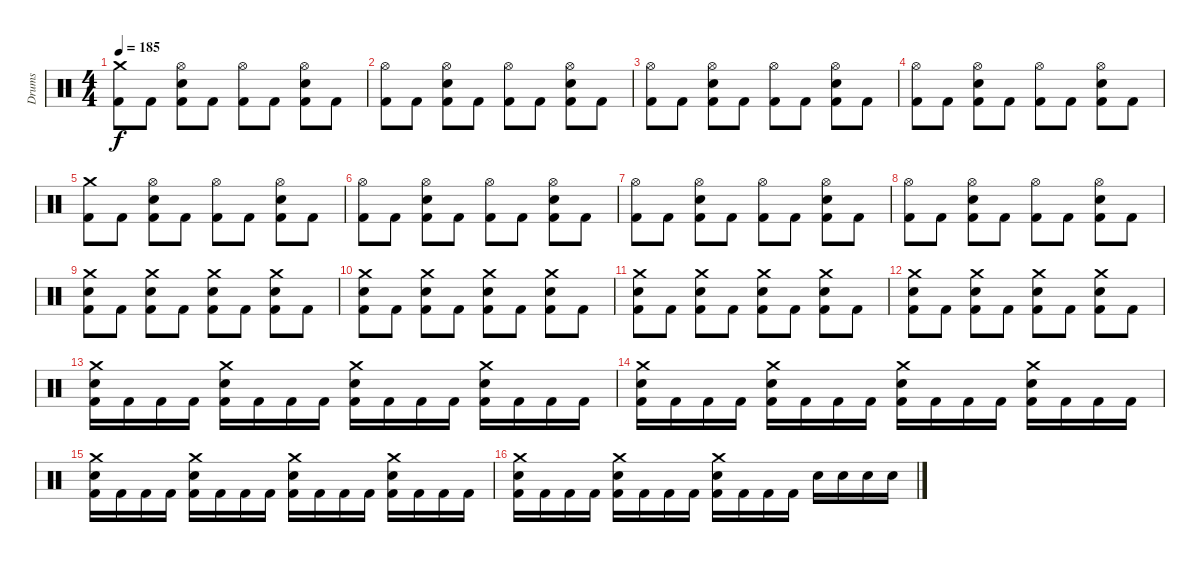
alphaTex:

\track ("Drums" "Drums") {instrument percussion}
\staff {score}
\articulation defaults
\ts (4 4)
\tempo 185
\clef neutral
\ks c
("Crash medium (hit)" "Kick (hit) 2").8{dy f} "Kick (hit) 2".8 ("Snare (hit) 2" "Hi-Hat (open)" "Kick (hit) 2").8 "Kick (hit) 2".8 ("Hi-Hat (open)" "Kick (hit) 2").8 "Kick (hit) 2".8 ("Snare (hit) 2" "Hi-Hat (open)" "Kick (hit) 2").8 "Kick (hit) 2".8 |
("Hi-Hat (open)" "Kick (hit) 2").8 "Kick (hit) 2".8 ("Snare (hit) 2" "Hi-Hat (open)" "Kick (hit) 2").8 "Kick (hit) 2".8 ("Hi-Hat (open)" "Kick (hit) 2").8 "Kick (hit) 2".8 ("Snare (hit) 2" "Hi-Hat (open)" "Kick (hit) 2").8 "Kick (hit) 2".8 |
("Hi-Hat (open)" "Kick (hit) 2").8 "Kick (hit) 2".8 ("Snare (hit) 2" "Hi-Hat (open)" "Kick (hit) 2").8 "Kick (hit) 2".8 ("Hi-Hat (open)" "Kick (hit) 2").8 "Kick (hit) 2".8 ("Snare (hit) 2" "Hi-Hat (open)" "Kick (hit) 2").8 "Kick (hit) 2".8 |
("Hi-Hat (open)" "Kick (hit) 2").8 "Kick (hit) 2".8 ("Snare (hit) 2" "Hi-Hat (open)" "Kick (hit) 2").8 "Kick (hit) 2".8 ("Hi-Hat (open)" "Kick (hit) 2").8 "Kick (hit) 2".8 ("Snare (hit) 2" "Hi-Hat (open)" "Kick (hit) 2").8 "Kick (hit) 2".8 |
("Crash medium (hit)" "Kick (hit) 2").8 "Kick (hit) 2".8 ("Snare (hit) 2" "Hi-Hat (open)" "Kick (hit) 2").8 "Kick (hit) 2".8 ("Hi-Hat (open)" "Kick (hit) 2").8 "Kick (hit) 2".8 ("Snare (hit) 2" "Hi-Hat (open)" "Kick (hit) 2").8 "Kick (hit) 2".8 |
("Hi-Hat (open)" "Kick (hit) 2").8 "Kick (hit) 2".8 ("Snare (hit) 2" "Hi-Hat (open)" "Kick (hit) 2").8 "Kick (hit) 2".8 ("Hi-Hat (open)" "Kick (hit) 2").8 "Kick (hit) 2".8 ("Snare (hit) 2" "Hi-Hat (open)" "Kick (hit) 2").8 "Kick (hit) 2".8 |
("Hi-Hat (open)" "Kick (hit) 2").8 "Kick (hit) 2".8 ("Snare (hit) 2" "Hi-Hat (open)" "Kick (hit) 2").8 "Kick (hit) 2".8 ("Hi-Hat (open)" "Kick (hit) 2").8 "Kick (hit) 2".8 ("Snare (hit) 2" "Hi-Hat (open)" "Kick (hit) 2").8 "Kick (hit) 2".8 |
("Hi-Hat (open)" "Kick (hit) 2").8 "Kick (hit) 2".8 ("Snare (hit) 2" "Hi-Hat (open)" "Kick (hit) 2").8 "Kick (hit) 2".8 ("Hi-Hat (open)" "Kick (hit) 2").8 "Kick (hit) 2".8 ("Snare (hit) 2" "Hi-Hat (open)" "Kick (hit) 2").8 "Kick (hit) 2".8 |
("Crash medium (hit)" "Snare (hit) 2" "Kick (hit) 2").8 "Kick (hit) 2".8 ("Crash medium (hit)" "Snare (hit) 2" "Kick (hit) 2").8 "Kick (hit) 2".8 ("Crash medium (hit)" "Snare (hit) 2" "Kick (hit) 2").8 "Kick (hit) 2".8 ("Crash medium (hit)" "Snare (hit) 2" "Kick (hit) 2").8 "Kick (hit) 2".8 |
("Crash medium (hit)" "Snare (hit) 2" "Kick (hit) 2").8 "Kick (hit) 2".8 ("Crash medium (hit)" "Snare (hit) 2" "Kick (hit) 2").8 "Kick (hit) 2".8 ("Crash medium (hit)" "Snare (hit) 2" "Kick (hit) 2").8 "Kick (hit) 2".8 ("Crash medium (hit)" "Snare (hit) 2" "Kick (hit) 2").8 "Kick (hit) 2".8 |
("Crash medium (hit)" "Snare (hit) 2" "Kick (hit) 2").8 "Kick (hit) 2".8 ("Crash medium (hit)" "Snare (hit) 2" "Kick (hit) 2").8 "Kick (hit) 2".8 ("Crash medium (hit)" "Snare (hit) 2" "Kick (hit) 2").8 "Kick (hit) 2".8 ("Crash medium (hit)" "Snare (hit) 2" "Kick (hit) 2").8 "Kick (hit) 2".8 |
("Crash medium (hit)" "Snare (hit) 2" "Kick (hit) 2").8 "Kick (hit) 2".8 ("Crash medium (hit)" "Snare (hit) 2" "Kick (hit) 2").8 "Kick (hit) 2".8 ("Crash medium (hit)" "Snare (hit) 2" "Kick (hit) 2").8 "Kick (hit) 2".8 ("Crash medium (hit)" "Snare (hit) 2" "Kick (hit) 2").8 "Kick (hit) 2".8 |
("Crash medium (hit)" "Snare (hit) 2" "Kick (hit) 2").16 "Kick (hit) 2".16 "Kick (hit) 2".16 "Kick (hit) 2".16 ("Crash medium (hit)" "Snare (hit) 2" "Kick (hit) 2").16 "Kick (hit) 2".16 "Kick (hit) 2".16 "Kick (hit) 2".16 ("Crash medium (hit)" "Snare (hit) 2" "Kick (hit) 2").16 "Kick (hit) 2".16 "Kick (hit) 2".16 "Kick (hit) 2".16 ("Crash medium (hit)" "Snare (hit) 2" "Kick (hit) 2").16 "Kick (hit) 2".16 "Kick (hit) 2".16 "Kick (hit) 2".16 |
("Crash medium (hit)" "Snare (hit) 2" "Kick (hit) 2").16 "Kick (hit) 2".16 "Kick (hit) 2".16 "Kick (hit) 2".16 ("Crash medium (hit)" "Snare (hit) 2" "Kick (hit) 2").16 "Kick (hit) 2".16 "Kick (hit) 2".16 "Kick (hit) 2".16 ("Crash medium (hit)" "Snare (hit) 2" "Kick (hit) 2").16 "Kick (hit) 2".16 "Kick (hit) 2".16 "Kick (hit) 2".16 ("Crash medium (hit)" "Snare (hit) 2" "Kick (hit) 2").16 "Kick (hit) 2".16 "Kick (hit) 2".16 "Kick (hit) 2".16 |
("Crash medium (hit)" "Snare (hit) 2" "Kick (hit) 2").16 "Kick (hit) 2".16 "Kick (hit) 2".16 "Kick (hit) 2".16 ("Crash medium (hit)" "Snare (hit) 2" "Kick (hit) 2").16 "Kick (hit) 2".16 "Kick (hit) 2".16 "Kick (hit) 2".16 ("Crash medium (hit)" "Snare (hit) 2" "Kick (hit) 2").16 "Kick (hit) 2".16 "Kick (hit) 2".16 "Kick (hit) 2".16 ("Crash medium (hit)" "Snare (hit) 2" "Kick (hit) 2").16 "Kick (hit) 2".16 "Kick (hit) 2".16 "Kick (hit) 2".16 |
("Crash medium (hit)" "Snare (hit) 2" "Kick (hit) 2").16 "Kick (hit) 2".16 "Kick (hit) 2".16 "Kick (hit) 2".16 ("Crash medium (hit)" "Snare (hit) 2" "Kick (hit) 2").16 "Kick (hit) 2".16 "Kick (hit) 2".16 "Kick (hit) 2".16 ("Crash medium (hit)" "Snare (hit) 2" "Kick (hit) 2").16 "Kick (hit) 2".16 "Kick (hit) 2".16 "Kick (hit) 2".16 "Snare (hit) 2".16 "Snare (hit) 2".16 "Snare (hit) 2".16 "Snare (hit) 2".16
